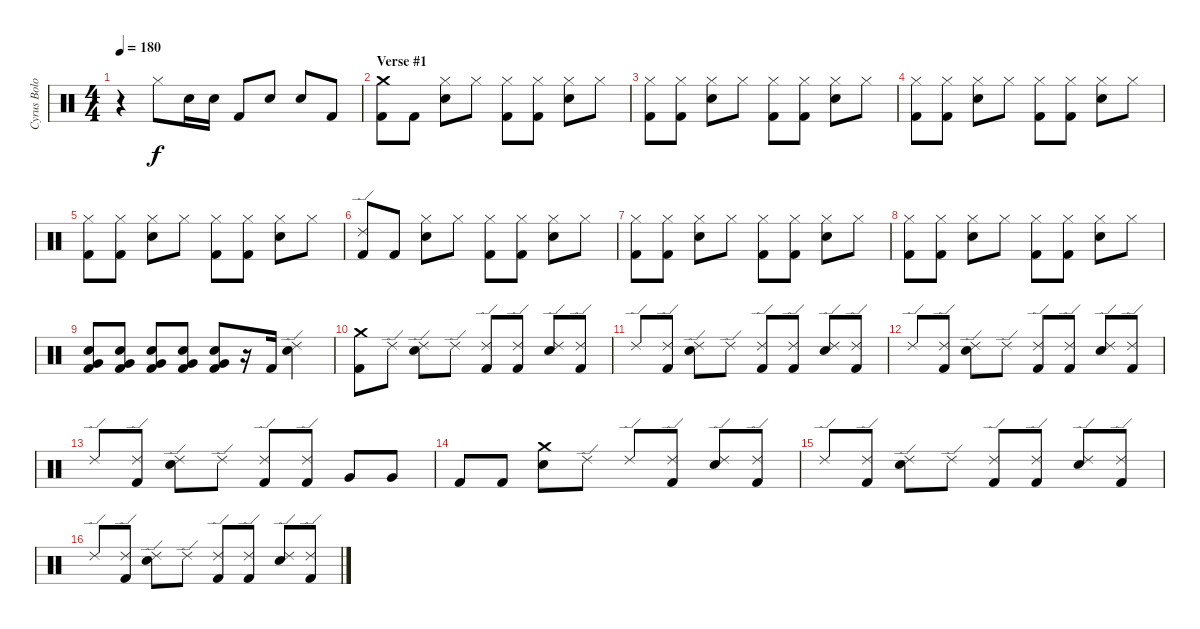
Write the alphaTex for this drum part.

\track ("Cyrus Bolooki - Drums" "Cyrus Bolo") {instrument percussion}
\staff {score}
\articulation defaults
\ts (4 4)
\tempo 180
\clef neutral
\ks c
r.4{dy f} "Hi-Hat (closed)".8 "Electric Snare (hit)".16 "Electric Snare (hit)".16 "Kick (hit) 2".8 "Electric Snare (hit)".8 "Electric Snare (hit)".8 "Kick (hit) 2".8 |
\section ("" "Verse #1")
("Crash medium (hit)" "Kick (hit) 2").8 "Kick (hit) 2".8 ("Hi-Hat (closed)" "Electric Snare (hit)").8 "Hi-Hat (closed)".8 ("Hi-Hat (closed)" "Kick (hit) 2").8 ("Hi-Hat (closed)" "Kick (hit) 2").8 ("Hi-Hat (closed)" "Electric Snare (hit)").8 "Hi-Hat (closed)".8 |
("Hi-Hat (closed)" "Kick (hit) 2").8 ("Hi-Hat (closed)" "Kick (hit) 2").8 ("Hi-Hat (closed)" "Electric Snare (hit)").8 "Hi-Hat (closed)".8 ("Hi-Hat (closed)" "Kick (hit) 2").8 ("Hi-Hat (closed)" "Kick (hit) 2").8 ("Hi-Hat (closed)" "Electric Snare (hit)").8 "Hi-Hat (closed)".8 |
("Hi-Hat (closed)" "Kick (hit) 2").8 ("Hi-Hat (closed)" "Kick (hit) 2").8 ("Hi-Hat (closed)" "Electric Snare (hit)").8 "Hi-Hat (closed)".8 ("Hi-Hat (closed)" "Kick (hit) 2").8 ("Hi-Hat (closed)" "Kick (hit) 2").8 ("Hi-Hat (closed)" "Electric Snare (hit)").8 "Hi-Hat (closed)".8 |
("Hi-Hat (closed)" "Kick (hit) 2").8 ("Hi-Hat (closed)" "Kick (hit) 2").8 ("Hi-Hat (closed)" "Electric Snare (hit)").8 "Hi-Hat (closed)".8 ("Hi-Hat (closed)" "Kick (hit) 2").8 ("Hi-Hat (closed)" "Kick (hit) 2").8 ("Hi-Hat (closed)" "Electric Snare (hit)").8 "Hi-Hat (closed)".8 |
("Ride (edge) 2" "Kick (hit) 2").8 "Kick (hit) 2".8 ("Hi-Hat (closed)" "Electric Snare (hit)").8 "Hi-Hat (closed)".8 ("Hi-Hat (closed)" "Kick (hit) 2").8 ("Hi-Hat (closed)" "Kick (hit) 2").8 ("Hi-Hat (closed)" "Electric Snare (hit)").8 "Hi-Hat (closed)".8 |
("Hi-Hat (closed)" "Kick (hit) 2").8 ("Hi-Hat (closed)" "Kick (hit) 2").8 ("Hi-Hat (closed)" "Electric Snare (hit)").8 "Hi-Hat (closed)".8 ("Hi-Hat (closed)" "Kick (hit) 2").8 ("Hi-Hat (closed)" "Kick (hit) 2").8 ("Hi-Hat (closed)" "Electric Snare (hit)").8 "Hi-Hat (closed)".8 |
("Hi-Hat (closed)" "Kick (hit) 2").8 ("Hi-Hat (closed)" "Kick (hit) 2").8 ("Hi-Hat (closed)" "Electric Snare (hit)").8 "Hi-Hat (closed)".8 ("Hi-Hat (closed)" "Kick (hit) 2").8 ("Hi-Hat (closed)" "Kick (hit) 2").8 ("Hi-Hat (closed)" "Electric Snare (hit)").8 "Hi-Hat (closed)".8 |
("Very Low Tom (hit)" "Electric Snare (hit)" "Kick (hit) 2").8 ("Very Low Tom (hit)" "Electric Snare (hit)" "Kick (hit) 2").8 ("Very Low Tom (hit)" "Electric Snare (hit)" "Kick (hit) 2").8 ("Very Low Tom (hit)" "Electric Snare (hit)" "Kick (hit) 2").8 ("Very Low Tom (hit)" "Electric Snare (hit)" "Kick (hit) 2").8 r.16 "Kick (hit) 2".16 ("Ride (edge) 2" "Electric Snare (hit)").4 |
("Crash medium (hit)" "Kick (hit) 2").8 "Ride (edge) 2".8 ("Ride (edge) 2" "Electric Snare (hit)").8 "Ride (edge) 2".8 ("Ride (edge) 2" "Kick (hit) 2").8 ("Ride (edge) 2" "Kick (hit) 2").8 ("Ride (edge) 2" "Electric Snare (hit)").8 ("Ride (edge) 2" "Kick (hit) 2").8 |
"Ride (edge) 2".8 ("Ride (edge) 2" "Kick (hit) 2").8 ("Ride (edge) 2" "Electric Snare (hit)").8 "Ride (edge) 2".8 ("Ride (edge) 2" "Kick (hit) 2").8 ("Ride (edge) 2" "Kick (hit) 2").8 ("Ride (edge) 2" "Electric Snare (hit)").8 ("Ride (edge) 2" "Kick (hit) 2").8 |
"Ride (edge) 2".8 ("Ride (edge) 2" "Kick (hit) 2").8 ("Ride (edge) 2" "Electric Snare (hit)").8 "Ride (edge) 2".8 ("Ride (edge) 2" "Kick (hit) 2").8 ("Ride (edge) 2" "Kick (hit) 2").8 ("Ride (edge) 2" "Electric Snare (hit)").8 ("Ride (edge) 2" "Kick (hit) 2").8 |
"Ride (edge) 2".8 ("Ride (edge) 2" "Kick (hit) 2").8 ("Ride (edge) 2" "Electric Snare (hit)").8 "Ride (edge) 2".8 ("Ride (edge) 2" "Kick (hit) 2").8 ("Ride (edge) 2" "Kick (hit) 2").8 "Very Low Tom (hit)".8 "Very Low Tom (hit)".8 |
"Kick (hit) 2".8 "Kick (hit) 2".8 ("Crash medium (hit)" "Electric Snare (hit)").8 "Ride (edge) 2".8 "Ride (edge) 2".8 ("Ride (edge) 2" "Kick (hit) 2").8 ("Ride (edge) 2" "Electric Snare (hit)").8 ("Ride (edge) 2" "Kick (hit) 2").8 |
"Ride (edge) 2".8 ("Ride (edge) 2" "Kick (hit) 2").8 ("Ride (edge) 2" "Electric Snare (hit)").8 "Ride (edge) 2".8 ("Ride (edge) 2" "Kick (hit) 2").8 ("Ride (edge) 2" "Kick (hit) 2").8 ("Ride (edge) 2" "Electric Snare (hit)").8 ("Ride (edge) 2" "Kick (hit) 2").8 |
"Ride (edge) 2".8 ("Ride (edge) 2" "Kick (hit) 2").8 ("Ride (edge) 2" "Electric Snare (hit)").8 "Ride (edge) 2".8 ("Ride (edge) 2" "Kick (hit) 2").8 ("Ride (edge) 2" "Kick (hit) 2").8 ("Ride (edge) 2" "Electric Snare (hit)").8 ("Ride (edge) 2" "Kick (hit) 2").8
